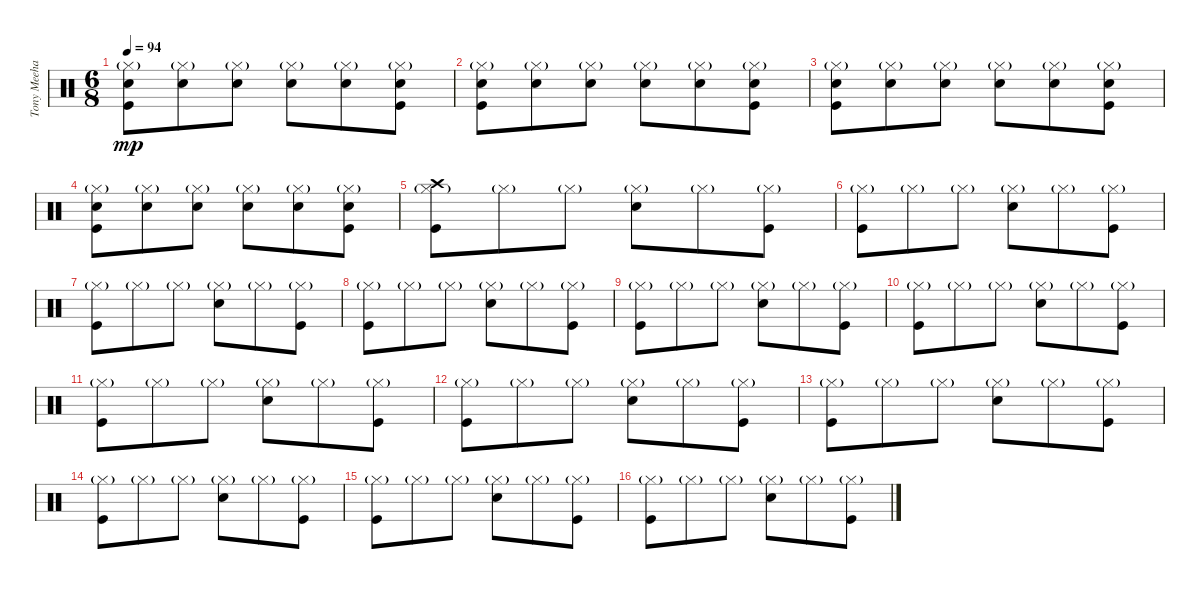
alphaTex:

\track ("Tony Meehan (drums)" "Tony Meeha") {instrument percussion}
\staff {score}
\articulation defaults
\ts (6 8)
\tempo 94
\clef neutral
\ks c
("Kick (hit)" "Electric Snare (hit)" "Hi-Hat (closed)"{g}).8{dy mp} ("Electric Snare (hit)" "Hi-Hat (closed)"{g}).8 ("Electric Snare (hit)" "Hi-Hat (closed)"{g}).8 ("Electric Snare (hit)" "Hi-Hat (closed)"{g}).8 ("Electric Snare (hit)" "Hi-Hat (closed)"{g}).8 ("Kick (hit)" "Electric Snare (hit)" "Hi-Hat (closed)"{g}).8 |
("Kick (hit)" "Electric Snare (hit)" "Hi-Hat (closed)"{g}).8 ("Electric Snare (hit)" "Hi-Hat (closed)"{g}).8 ("Electric Snare (hit)" "Hi-Hat (closed)"{g}).8 ("Electric Snare (hit)" "Hi-Hat (closed)"{g}).8 ("Electric Snare (hit)" "Hi-Hat (closed)"{g}).8 ("Kick (hit)" "Electric Snare (hit)" "Hi-Hat (closed)"{g}).8 |
("Kick (hit)" "Electric Snare (hit)" "Hi-Hat (closed)"{g}).8 ("Electric Snare (hit)" "Hi-Hat (closed)"{g}).8 ("Electric Snare (hit)" "Hi-Hat (closed)"{g}).8 ("Electric Snare (hit)" "Hi-Hat (closed)"{g}).8 ("Electric Snare (hit)" "Hi-Hat (closed)"{g}).8 ("Kick (hit)" "Electric Snare (hit)" "Hi-Hat (closed)"{g}).8 |
("Kick (hit)" "Electric Snare (hit)" "Hi-Hat (closed)"{g}).8 ("Electric Snare (hit)" "Hi-Hat (closed)"{g}).8 ("Electric Snare (hit)" "Hi-Hat (closed)"{g}).8 ("Electric Snare (hit)" "Hi-Hat (closed)"{g}).8 ("Electric Snare (hit)" "Hi-Hat (closed)"{g}).8 ("Kick (hit)" "Electric Snare (hit)" "Hi-Hat (closed)"{g}).8 |
("Kick (hit)" "Crash high (hit)" "Hi-Hat (closed)"{g}).8 "Hi-Hat (closed)"{g}.8 "Hi-Hat (closed)"{g}.8 ("Electric Snare (hit)" "Hi-Hat (closed)"{g}).8 "Hi-Hat (closed)"{g}.8 ("Kick (hit)" "Hi-Hat (closed)"{g}).8 |
("Kick (hit)" "Hi-Hat (closed)"{g}).8 "Hi-Hat (closed)"{g}.8 "Hi-Hat (closed)"{g}.8 ("Electric Snare (hit)" "Hi-Hat (closed)"{g}).8 "Hi-Hat (closed)"{g}.8 ("Kick (hit)" "Hi-Hat (closed)"{g}).8 |
("Kick (hit)" "Hi-Hat (closed)"{g}).8 "Hi-Hat (closed)"{g}.8 "Hi-Hat (closed)"{g}.8 ("Electric Snare (hit)" "Hi-Hat (closed)"{g}).8 "Hi-Hat (closed)"{g}.8 ("Kick (hit)" "Hi-Hat (closed)"{g}).8 |
("Kick (hit)" "Hi-Hat (closed)"{g}).8 "Hi-Hat (closed)"{g}.8 "Hi-Hat (closed)"{g}.8 ("Electric Snare (hit)" "Hi-Hat (closed)"{g}).8 "Hi-Hat (closed)"{g}.8 ("Kick (hit)" "Hi-Hat (closed)"{g}).8 |
("Kick (hit)" "Hi-Hat (closed)"{g}).8 "Hi-Hat (closed)"{g}.8 "Hi-Hat (closed)"{g}.8 ("Electric Snare (hit)" "Hi-Hat (closed)"{g}).8 "Hi-Hat (closed)"{g}.8 ("Kick (hit)" "Hi-Hat (closed)"{g}).8 |
("Kick (hit)" "Hi-Hat (closed)"{g}).8 "Hi-Hat (closed)"{g}.8 "Hi-Hat (closed)"{g}.8 ("Electric Snare (hit)" "Hi-Hat (closed)"{g}).8 "Hi-Hat (closed)"{g}.8 ("Kick (hit)" "Hi-Hat (closed)"{g}).8 |
("Kick (hit)" "Hi-Hat (closed)"{g}).8 "Hi-Hat (closed)"{g}.8 "Hi-Hat (closed)"{g}.8 ("Electric Snare (hit)" "Hi-Hat (closed)"{g}).8 "Hi-Hat (closed)"{g}.8 ("Kick (hit)" "Hi-Hat (closed)"{g}).8 |
("Kick (hit)" "Hi-Hat (closed)"{g}).8 "Hi-Hat (closed)"{g}.8 "Hi-Hat (closed)"{g}.8 ("Electric Snare (hit)" "Hi-Hat (closed)"{g}).8 "Hi-Hat (closed)"{g}.8 ("Kick (hit)" "Hi-Hat (closed)"{g}).8 |
("Kick (hit)" "Hi-Hat (closed)"{g}).8 "Hi-Hat (closed)"{g}.8 "Hi-Hat (closed)"{g}.8 ("Electric Snare (hit)" "Hi-Hat (closed)"{g}).8 "Hi-Hat (closed)"{g}.8 ("Kick (hit)" "Hi-Hat (closed)"{g}).8 |
("Kick (hit)" "Hi-Hat (closed)"{g}).8 "Hi-Hat (closed)"{g}.8 "Hi-Hat (closed)"{g}.8 ("Electric Snare (hit)" "Hi-Hat (closed)"{g}).8 "Hi-Hat (closed)"{g}.8 ("Kick (hit)" "Hi-Hat (closed)"{g}).8 |
("Kick (hit)" "Hi-Hat (closed)"{g}).8 "Hi-Hat (closed)"{g}.8 "Hi-Hat (closed)"{g}.8 ("Electric Snare (hit)" "Hi-Hat (closed)"{g}).8 "Hi-Hat (closed)"{g}.8 ("Kick (hit)" "Hi-Hat (closed)"{g}).8 |
("Kick (hit)" "Hi-Hat (closed)"{g}).8 "Hi-Hat (closed)"{g}.8 "Hi-Hat (closed)"{g}.8 ("Electric Snare (hit)" "Hi-Hat (closed)"{g}).8 "Hi-Hat (closed)"{g}.8 ("Kick (hit)" "Hi-Hat (closed)"{g}).8
